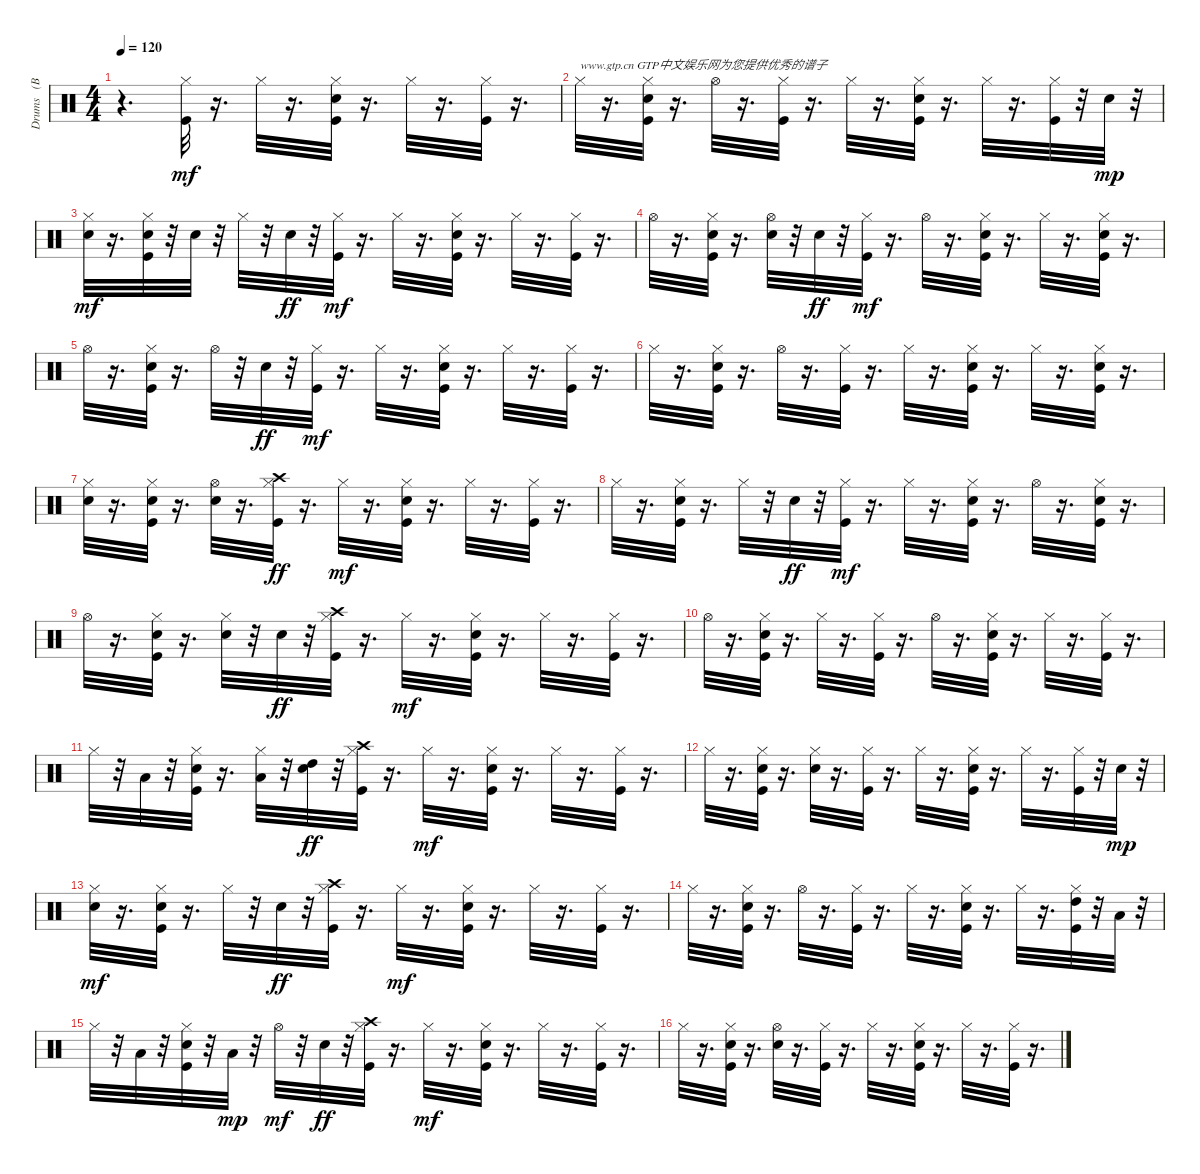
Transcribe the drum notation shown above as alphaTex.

\track ("Drums   (BB)" "Drums   (B") {instrument percussion}
\staff {score}
\articulation defaults
\ts (4 4)
\tempo 120
\clef neutral
\ks c
r.4{d dy mf} ("Kick (hit)" "Hi-Hat (closed)").32 r.16{d} "Hi-Hat (closed)".32 r.16{d} ("Kick (hit)" "Snare (hit) 2" "Hi-Hat (closed)").32 r.16{d} "Hi-Hat (closed)".32 r.16{d} ("Kick (hit)" "Hi-Hat (closed)").32 r.16{d} |
"Hi-Hat (closed)".32{txt "www.gtp.cn GTP中文娱乐网为您提供优秀的谱子"} r.16{d} ("Kick (hit)" "Snare (hit) 2" "Hi-Hat (closed)").32 r.16{d} "Hi-Hat (open)".32 r.16{d} ("Kick (hit)" "Hi-Hat (closed)").32 r.16{d} "Hi-Hat (closed)".32 r.16{d} ("Kick (hit)" "Snare (hit) 2" "Hi-Hat (closed)").32 r.16{d} "Hi-Hat (closed)".32 r.16{d} ("Kick (hit)" "Hi-Hat (closed)").32 r.32 "Snare (hit) 2".32{dy mp} r.32 |
("Snare (hit) 2" "Hi-Hat (closed)").32{dy mf} r.16{d} ("Kick (hit)" "Snare (hit) 2" "Hi-Hat (closed)").32 r.32 "Snare (hit) 2".32 r.32 "Hi-Hat (closed)".32 r.32 "Snare (hit) 2".32{dy ff} r.32 ("Kick (hit)" "Hi-Hat (closed)").32{dy mf} r.16{d} "Hi-Hat (closed)".32 r.16{d} ("Kick (hit)" "Snare (hit) 2" "Hi-Hat (closed)").32 r.16{d} "Hi-Hat (closed)".32 r.16{d} ("Kick (hit)" "Hi-Hat (closed)").32 r.16{d} |
"Hi-Hat (open)".32 r.16{d} ("Kick (hit)" "Snare (hit) 2" "Hi-Hat (closed)").32 r.16{d} ("Snare (hit) 2" "Hi-Hat (open)").32 r.32 "Snare (hit) 2".32{dy ff} r.32 ("Kick (hit)" "Hi-Hat (closed)").32{dy mf} r.16{d} "Hi-Hat (open)".32 r.16{d} ("Kick (hit)" "Snare (hit) 2" "Hi-Hat (closed)").32 r.16{d} "Hi-Hat (closed)".32 r.16{d} ("Kick (hit)" "Snare (hit) 2" "Hi-Hat (closed)").32 r.16{d} |
"Hi-Hat (open)".32 r.16{d} ("Kick (hit)" "Snare (hit) 2" "Hi-Hat (closed)").32 r.16{d} "Hi-Hat (open)".32 r.32 "Snare (hit) 2".32{dy ff} r.32 ("Kick (hit)" "Hi-Hat (closed)").32{dy mf} r.16{d} "Hi-Hat (closed)".32 r.16{d} ("Kick (hit)" "Snare (hit) 2" "Hi-Hat (closed)").32 r.16{d} "Hi-Hat (closed)".32 r.16{d} ("Kick (hit)" "Hi-Hat (closed)").32 r.16{d} |
"Hi-Hat (closed)".32 r.16{d} ("Kick (hit)" "Snare (hit) 2" "Hi-Hat (closed)").32 r.16{d} "Hi-Hat (open)".32 r.16{d} ("Kick (hit)" "Hi-Hat (closed)").32 r.16{d} "Hi-Hat (closed)".32 r.16{d} ("Kick (hit)" "Snare (hit) 2" "Hi-Hat (closed)").32 r.16{d} "Hi-Hat (closed)".32 r.16{d} ("Kick (hit)" "Snare (hit) 2" "Hi-Hat (closed)").32 r.16{d} |
("Snare (hit) 2" "Hi-Hat (closed)").32 r.16{d} ("Kick (hit)" "Snare (hit) 2" "Hi-Hat (closed)").32 r.16{d} ("Snare (hit) 2" "Hi-Hat (open)").32 r.16{d} ("Kick (hit)" "Hi-Hat (closed)" "Crash high (hit)").32{dy ff} r.16{d} "Hi-Hat (closed)".32{dy mf} r.16{d} ("Kick (hit)" "Snare (hit) 2" "Hi-Hat (closed)").32 r.16{d} "Hi-Hat (closed)".32 r.16{d} ("Kick (hit)" "Hi-Hat (closed)").32 r.16{d} |
"Hi-Hat (closed)".32 r.16{d} ("Kick (hit)" "Snare (hit) 2" "Hi-Hat (closed)").32 r.16{d} "Hi-Hat (closed)".32 r.32 "Snare (hit) 2".32{dy ff} r.32 ("Kick (hit)" "Hi-Hat (closed)").32{dy mf} r.16{d} "Hi-Hat (closed)".32 r.16{d} ("Kick (hit)" "Snare (hit) 2" "Hi-Hat (closed)").32 r.16{d} "Hi-Hat (open)".32 r.16{d} ("Kick (hit)" "Snare (hit) 2" "Hi-Hat (closed)").32 r.16{d} |
"Hi-Hat (open)".32 r.16{d} ("Kick (hit)" "Snare (hit) 2" "Hi-Hat (closed)").32 r.16{d} ("Snare (hit) 2" "Hi-Hat (closed)").32 r.32 "Snare (hit) 2".32{dy ff} r.32 ("Kick (hit)" "Hi-Hat (closed)" "Crash high (hit)").32 r.16{d} "Hi-Hat (closed)".32{dy mf} r.16{d} ("Kick (hit)" "Snare (hit) 2" "Hi-Hat (closed)").32 r.16{d} "Hi-Hat (closed)".32 r.16{d} ("Kick (hit)" "Hi-Hat (closed)").32 r.16{d} |
"Hi-Hat (open)".32 r.16{d} ("Kick (hit)" "Snare (hit) 2" "Hi-Hat (closed)").32 r.16{d} "Hi-Hat (closed)".32 r.16{d} ("Kick (hit)" "Hi-Hat (closed)").32 r.16{d} "Hi-Hat (open)".32 r.16{d} ("Kick (hit)" "Snare (hit) 2" "Hi-Hat (closed)").32 r.16{d} "Hi-Hat (closed)".32 r.16{d} ("Kick (hit)" "Hi-Hat (closed)").32 r.16{d} |
"Hi-Hat (closed)".32 r.32 "Low Tom (hit)".32 r.32 ("Kick (hit)" "Snare (hit) 2" "Hi-Hat (closed)").32 r.16{d} ("Hi-Hat (closed)" "Low Tom (hit)").32 r.32 ("Snare (hit) 2" "High Tom (hit)").32{dy ff} r.32 ("Kick (hit)" "Hi-Hat (closed)" "Crash high (hit)").32 r.16{d} "Hi-Hat (closed)".32{dy mf} r.16{d} ("Kick (hit)" "Snare (hit) 2" "Hi-Hat (closed)").32 r.16{d} "Hi-Hat (closed)".32 r.16{d} ("Kick (hit)" "Hi-Hat (closed)").32 r.16{d} |
"Hi-Hat (closed)".32 r.16{d} ("Kick (hit)" "Snare (hit) 2" "Hi-Hat (closed)").32 r.16{d} ("Snare (hit) 2" "Hi-Hat (closed)").32 r.16{d} ("Kick (hit)" "Hi-Hat (closed)").32 r.16{d} "Hi-Hat (closed)".32 r.16{d} ("Kick (hit)" "Snare (hit) 2" "Hi-Hat (closed)").32 r.16{d} "Hi-Hat (closed)".32 r.16{d} ("Kick (hit)" "Hi-Hat (closed)").32 r.32 "Snare (hit) 2".32{dy mp} r.32 |
("Snare (hit) 2" "Hi-Hat (closed)").32{dy mf} r.16{d} ("Kick (hit)" "Snare (hit) 2" "Hi-Hat (closed)").32 r.16{d} "Hi-Hat (closed)".32 r.32 "Snare (hit) 2".32{dy ff} r.32 ("Kick (hit)" "Hi-Hat (closed)" "Crash high (hit)").32 r.16{d} "Hi-Hat (closed)".32{dy mf} r.16{d} ("Kick (hit)" "Snare (hit) 2" "Hi-Hat (closed)").32 r.16{d} "Hi-Hat (closed)".32 r.16{d} ("Kick (hit)" "Hi-Hat (closed)").32 r.16{d} |
"Hi-Hat (closed)".32 r.16{d} ("Kick (hit)" "Snare (hit) 2" "Hi-Hat (closed)").32 r.16{d} "Hi-Hat (open)".32 r.16{d} ("Kick (hit)" "Hi-Hat (closed)").32 r.16{d} "Hi-Hat (closed)".32 r.16{d} ("Kick (hit)" "Snare (hit) 2" "Hi-Hat (closed)").32 r.16{d} "Hi-Hat (closed)".32 r.16{d} ("Kick (hit)" "Hi-Hat (closed)" "High Tom (hit)").32 r.32 "Low Tom (hit)".32 r.32 |
"Hi-Hat (closed)".32 r.32 "Low Tom (hit)".32 r.32 ("Kick (hit)" "Snare (hit) 2" "Hi-Hat (closed)").32 r.32 "Low Tom (hit)".32{dy mp} r.32 "Hi-Hat (open)".32{dy mf} r.32 "Snare (hit) 2".32{dy ff} r.32 ("Kick (hit)" "Hi-Hat (closed)" "Crash high (hit)").32 r.16{d} "Hi-Hat (closed)".32{dy mf} r.16{d} ("Kick (hit)" "Snare (hit) 2" "Hi-Hat (closed)").32 r.16{d} "Hi-Hat (closed)".32 r.16{d} ("Kick (hit)" "Hi-Hat (closed)").32 r.16{d} |
"Hi-Hat (closed)".32 r.16{d} ("Kick (hit)" "Snare (hit) 2" "Hi-Hat (closed)").32 r.16{d} ("Snare (hit) 2" "Hi-Hat (open)").32 r.16{d} ("Kick (hit)" "Hi-Hat (closed)").32 r.16{d} "Hi-Hat (closed)".32 r.16{d} ("Kick (hit)" "Snare (hit) 2" "Hi-Hat (closed)").32 r.16{d} "Hi-Hat (closed)".32 r.16{d} ("Kick (hit)" "Hi-Hat (closed)").32 r.16{d}
